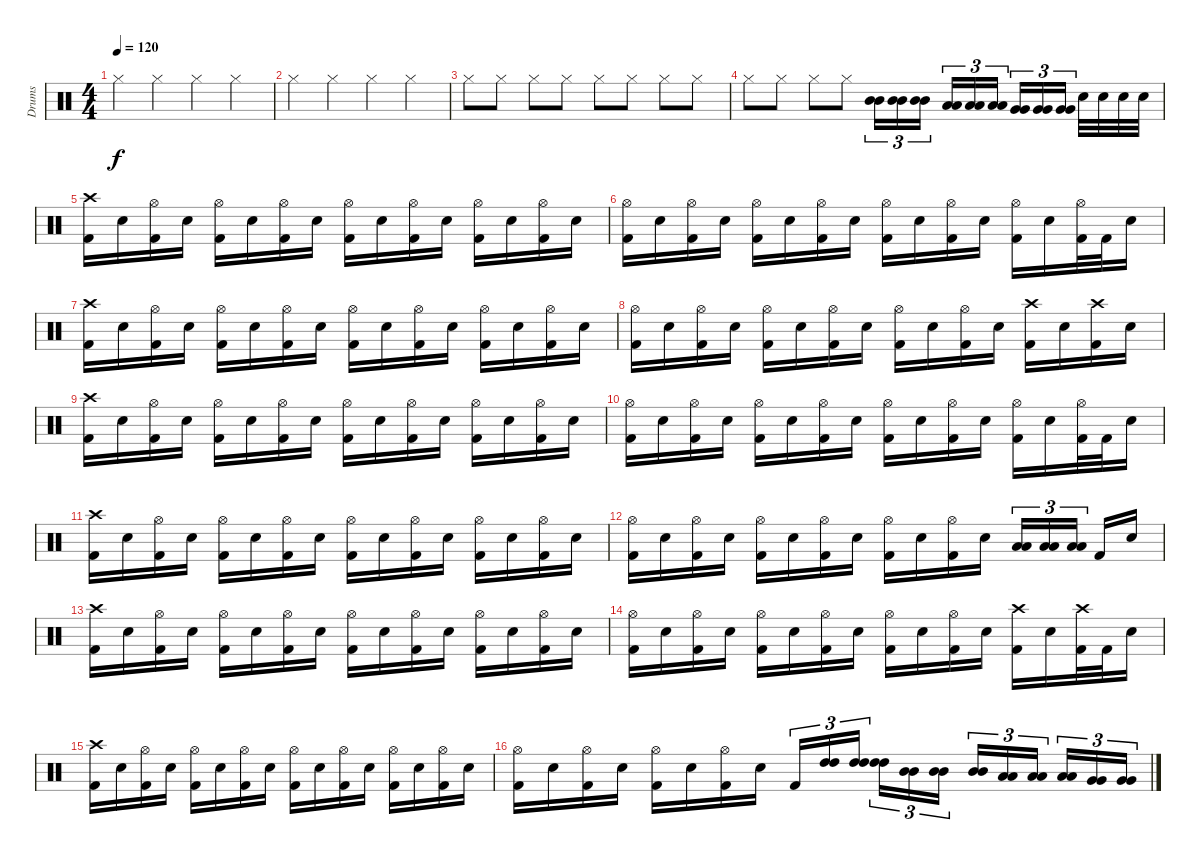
\track ("Drums" "Drums") {instrument percussion}
\staff {score}
\articulation defaults
\ts (4 4)
\tempo 120
\clef neutral
\ks c "Hi-Hat (closed)".4{dy f} "Hi-Hat (closed)".4 "Hi-Hat (closed)".4 "Hi-Hat (closed)".4
|
"Hi-Hat (closed)".4 "Hi-Hat (closed)".4 "Hi-Hat (closed)".4 "Hi-Hat (closed)".4 |
"Hi-Hat (closed)".8 "Hi-Hat (closed)".8 "Hi-Hat (closed)".8 "Hi-Hat (closed)".8 "Hi-Hat (closed)".8 "Hi-Hat (closed)".8 "Hi-Hat (closed)".8 "Hi-Hat (closed)".8 |
"Hi-Hat (closed)".8 "Hi-Hat (closed)".8 "Hi-Hat (closed)".8 "Hi-Hat (closed)".8 ("Mid Tom (hit)" "Mid Tom (hit)").16{tu (3 2) balance 10} ("Mid Tom (hit)" "Mid Tom (hit)").16{tu (3 2)} ("Mid Tom (hit)" "Mid Tom (hit)").16{tu (3 2)} ("Low Tom (hit)" "Low Tom (hit)").16{tu (3 2) balance 8} ("Low Tom (hit)" "Low Tom (hit)").16{tu (3 2)} ("Low Tom (hit)" "Low Tom (hit)").16{tu (3 2)} ("Very Low Tom (hit)" "Very Low Tom (hit)").16{tu (3 2) balance 6} ("Very Low Tom (hit)" "Very Low Tom (hit)").16{tu (3 2)} ("Very Low Tom (hit)" "Very Low Tom (hit)").16{tu (3 2)} "Electric Snare (hit)".32{balance 8} "Electric Snare (hit)".32 "Electric Snare (hit)".32 "Electric Snare (hit)".32 |
("Crash high (hit)" "Kick (hit) 2").16 "Electric Snare (hit)".16 ("Hi-Hat (open)" "Kick (hit) 2").16 "Electric Snare (hit)".16 ("Hi-Hat (open)" "Kick (hit) 2").16 "Electric Snare (hit)".16 ("Hi-Hat (open)" "Kick (hit) 2").16 "Electric Snare (hit)".16 ("Hi-Hat (open)" "Kick (hit) 2").16 "Electric Snare (hit)".16 ("Hi-Hat (open)" "Kick (hit) 2").16 "Electric Snare (hit)".16 ("Hi-Hat (open)" "Kick (hit) 2").16 "Electric Snare (hit)".16 ("Hi-Hat (open)" "Kick (hit) 2").16 "Electric Snare (hit)".16 |
("Hi-Hat (open)" "Kick (hit) 2").16 "Electric Snare (hit)".16 ("Hi-Hat (open)" "Kick (hit) 2").16 "Electric Snare (hit)".16 ("Hi-Hat (open)" "Kick (hit) 2").16 "Electric Snare (hit)".16 ("Hi-Hat (open)" "Kick (hit) 2").16 "Electric Snare (hit)".16 ("Hi-Hat (open)" "Kick (hit) 2").16 "Electric Snare (hit)".16 ("Hi-Hat (open)" "Kick (hit) 2").16 "Electric Snare (hit)".16 ("Hi-Hat (open)" "Kick (hit) 2").16 "Electric Snare (hit)".16 ("Hi-Hat (open)" "Kick (hit) 2").32 "Kick (hit) 2".32 "Electric Snare (hit)".16 |
("Crash high (hit)" "Kick (hit) 2").16 "Electric Snare (hit)".16 ("Hi-Hat (open)" "Kick (hit) 2").16 "Electric Snare (hit)".16 ("Hi-Hat (open)" "Kick (hit) 2").16 "Electric Snare (hit)".16 ("Hi-Hat (open)" "Kick (hit) 2").16 "Electric Snare (hit)".16 ("Hi-Hat (open)" "Kick (hit) 2").16 "Electric Snare (hit)".16 ("Hi-Hat (open)" "Kick (hit) 2").16 "Electric Snare (hit)".16 ("Hi-Hat (open)" "Kick (hit) 2").16 "Electric Snare (hit)".16 ("Hi-Hat (open)" "Kick (hit) 2").16 "Electric Snare (hit)".16 |
("Hi-Hat (open)" "Kick (hit) 2").16 "Electric Snare (hit)".16 ("Hi-Hat (open)" "Kick (hit) 2").16 "Electric Snare (hit)".16 ("Hi-Hat (open)" "Kick (hit) 2").16 "Electric Snare (hit)".16 ("Hi-Hat (open)" "Kick (hit) 2").16 "Electric Snare (hit)".16 ("Hi-Hat (open)" "Kick (hit) 2").16 "Electric Snare (hit)".16 ("Hi-Hat (open)" "Kick (hit) 2").16 "Electric Snare (hit)".16 ("Crash high (hit)" "Kick (hit) 2").16 "Electric Snare (hit)".16 ("Crash high (hit)" "Kick (hit) 2").16 "Electric Snare (hit)".16 |
("Crash high (hit)" "Kick (hit) 2").16 "Electric Snare (hit)".16 ("Hi-Hat (open)" "Kick (hit) 2").16 "Electric Snare (hit)".16 ("Hi-Hat (open)" "Kick (hit) 2").16 "Electric Snare (hit)".16 ("Hi-Hat (open)" "Kick (hit) 2").16 "Electric Snare (hit)".16 ("Hi-Hat (open)" "Kick (hit) 2").16 "Electric Snare (hit)".16 ("Hi-Hat (open)" "Kick (hit) 2").16 "Electric Snare (hit)".16 ("Hi-Hat (open)" "Kick (hit) 2").16 "Electric Snare (hit)".16 ("Hi-Hat (open)" "Kick (hit) 2").16 "Electric Snare (hit)".16 |
("Hi-Hat (open)" "Kick (hit) 2").16 "Electric Snare (hit)".16 ("Hi-Hat (open)" "Kick (hit) 2").16 "Electric Snare (hit)".16 ("Hi-Hat (open)" "Kick (hit) 2").16 "Electric Snare (hit)".16 ("Hi-Hat (open)" "Kick (hit) 2").16 "Electric Snare (hit)".16 ("Hi-Hat (open)" "Kick (hit) 2").16 "Electric Snare (hit)".16 ("Hi-Hat (open)" "Kick (hit) 2").16 "Electric Snare (hit)".16 ("Hi-Hat (open)" "Kick (hit) 2").16 "Electric Snare (hit)".16 ("Hi-Hat (open)" "Kick (hit) 2").32 "Kick (hit) 2".32 "Electric Snare (hit)".16 |
("Crash high (hit)" "Kick (hit) 2").16 "Electric Snare (hit)".16 ("Hi-Hat (open)" "Kick (hit) 2").16 "Electric Snare (hit)".16 ("Hi-Hat (open)" "Kick (hit) 2").16 "Electric Snare (hit)".16 ("Hi-Hat (open)" "Kick (hit) 2").16 "Electric Snare (hit)".16 ("Hi-Hat (open)" "Kick (hit) 2").16 "Electric Snare (hit)".16 ("Hi-Hat (open)" "Kick (hit) 2").16 "Electric Snare (hit)".16 ("Hi-Hat (open)" "Kick (hit) 2").16 "Electric Snare (hit)".16 ("Hi-Hat (open)" "Kick (hit) 2").16 "Electric Snare (hit)".16 |
("Hi-Hat (open)" "Kick (hit) 2").16 "Electric Snare (hit)".16 ("Hi-Hat (open)" "Kick (hit) 2").16 "Electric Snare (hit)".16 ("Hi-Hat (open)" "Kick (hit) 2").16 "Electric Snare (hit)".16 ("Hi-Hat (open)" "Kick (hit) 2").16 "Electric Snare (hit)".16 ("Hi-Hat (open)" "Kick (hit) 2").16 "Electric Snare (hit)".16 ("Hi-Hat (open)" "Kick (hit) 2").16 "Electric Snare (hit)".16 ("Low Tom (hit)" "Low Tom (hit)").16{tu (3 2) balance 11} ("Low Tom (hit)" "Low Tom (hit)").16{tu (3 2)} ("Low Tom (hit)" "Low Tom (hit)").16{tu (3 2) balance 5} "Kick (hit) 2".16{balance 8} "Electric Snare (hit)".16 |
("Crash high (hit)" "Kick (hit) 2").16 "Electric Snare (hit)".16 ("Hi-Hat (open)" "Kick (hit) 2").16 "Electric Snare (hit)".16 ("Hi-Hat (open)" "Kick (hit) 2").16 "Electric Snare (hit)".16 ("Hi-Hat (open)" "Kick (hit) 2").16 "Electric Snare (hit)".16 ("Hi-Hat (open)" "Kick (hit) 2").16 "Electric Snare (hit)".16 ("Hi-Hat (open)" "Kick (hit) 2").16 "Electric Snare (hit)".16 ("Hi-Hat (open)" "Kick (hit) 2").16 "Electric Snare (hit)".16 ("Hi-Hat (open)" "Kick (hit) 2").16 "Electric Snare (hit)".16 |
("Hi-Hat (open)" "Kick (hit) 2").16 "Electric Snare (hit)".16 ("Hi-Hat (open)" "Kick (hit) 2").16 "Electric Snare (hit)".16 ("Hi-Hat (open)" "Kick (hit) 2").16 "Electric Snare (hit)".16 ("Hi-Hat (open)" "Kick (hit) 2").16 "Electric Snare (hit)".16 ("Hi-Hat (open)" "Kick (hit) 2").16 "Electric Snare (hit)".16 ("Hi-Hat (open)" "Kick (hit) 2").16 "Electric Snare (hit)".16 ("Crash high (hit)" "Kick (hit) 2").16 "Electric Snare (hit)".16 ("Crash high (hit)" "Kick (hit) 2").32 "Kick (hit) 2".32 "Electric Snare (hit)".16 |
("Crash high (hit)" "Kick (hit) 2").16 "Electric Snare (hit)".16 ("Hi-Hat (open)" "Kick (hit) 2").16 "Electric Snare (hit)".16 ("Hi-Hat (open)" "Kick (hit) 2").16 "Electric Snare (hit)".16 ("Hi-Hat (open)" "Kick (hit) 2").16 "Electric Snare (hit)".16 ("Hi-Hat (open)" "Kick (hit) 2").16 "Electric Snare (hit)".16 ("Hi-Hat (open)" "Kick (hit) 2").16 "Electric Snare (hit)".16 ("Hi-Hat (open)" "Kick (hit) 2").16 "Electric Snare (hit)".16 ("Hi-Hat (open)" "Kick (hit) 2").16 "Electric Snare (hit)".16 |
("Hi-Hat (open)" "Kick (hit) 2").16 "Electric Snare (hit)".16 ("Hi-Hat (open)" "Kick (hit) 2").16 "Electric Snare (hit)".16 ("Hi-Hat (open)" "Kick (hit) 2").16 "Electric Snare (hit)".16 ("Hi-Hat (open)" "Kick (hit) 2").16 "Electric Snare (hit)".16 "Kick (hit) 2".16{tu (3 2)} ("High Tom (hit)" "High Tom (hit)").16{tu (3 2) balance 11} ("High Tom (hit)" "High Tom (hit)").16{tu (3 2)} ("High Tom (hit)" "High Tom (hit)").16{tu (3 2)} ("Mid Tom (hit)" "Mid Tom (hit)").16{tu (3 2) balance 9} ("Mid Tom (hit)" "Mid Tom (hit)").16{tu (3 2)} ("Mid Tom (hit)" "Mid Tom (hit)").16{tu (3 2)} ("Low Tom (hit)" "Low Tom (hit)").16{tu (3 2) balance 7} ("Low Tom (hit)" "Low Tom (hit)").16{tu (3 2)} ("Low Tom (hit)" "Low Tom (hit)").16{tu (3 2) balance 5} ("Very Low Tom (hit)" "Very Low Tom (hit)").16{tu (3 2)} ("Very Low Tom (hit)" "Very Low Tom (hit)").16{tu (3 2)}
